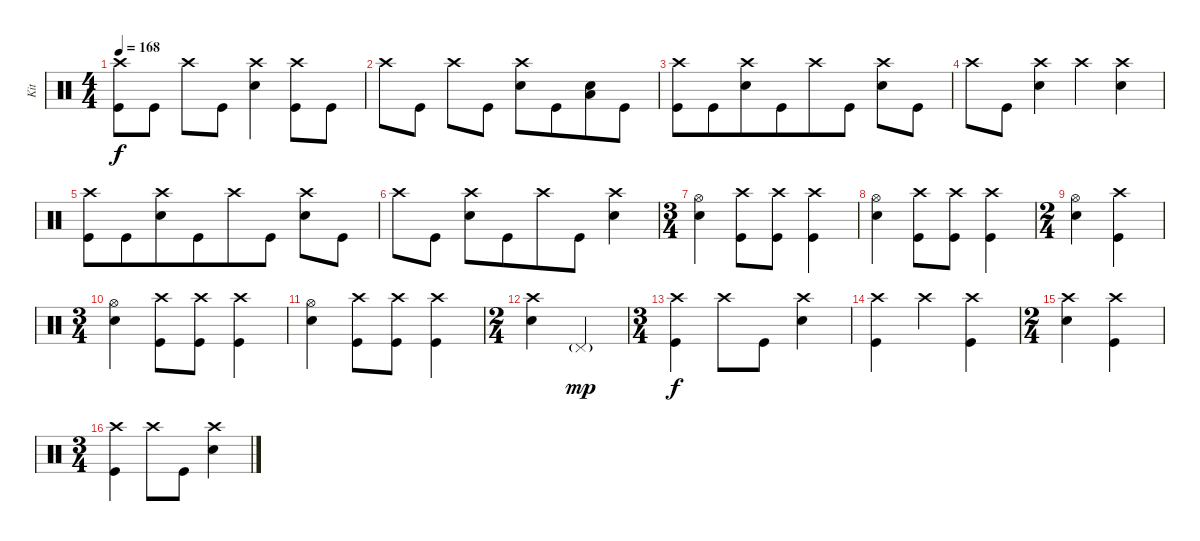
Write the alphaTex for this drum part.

\track ("Kit" "Kit") {instrument percussion}
\staff {score}
\articulation defaults
\ts (4 4)
\tempo 168
\clef neutral
\ks c
("Crash high (hit)" "Kick (hit)").8{dy f} "Kick (hit)".8 "Crash high (hit)".8 "Kick (hit)".8{beam merge} ("Crash high (hit)" "Electric Snare (hit)").4{beam merge} ("Crash high (hit)" "Kick (hit)").8{beam merge} "Kick (hit)".8 |
"Crash high (hit)".8{beam merge} "Kick (hit)".8 "Crash high (hit)".8{beam merge} "Kick (hit)".8 ("Crash high (hit)" "Electric Snare (hit)").8 "Kick (hit)".8{beam merge} ("Electric Snare (hit)" "Low Floor Tom (hit)").8 "Kick (hit)".8 |
("Crash high (hit)" "Kick (hit)").8 "Kick (hit)".8{beam merge} ("Crash high (hit)" "Electric Snare (hit)").8 "Kick (hit)".8{beam merge} "Crash high (hit)".8 "Kick (hit)".8 ("Crash high (hit)" "Electric Snare (hit)").8 "Kick (hit)".8 |
"Crash high (hit)".8{beam merge} "Kick (hit)".8 ("Crash high (hit)" "Electric Snare (hit)").4{beam merge} "Crash high (hit)".4 ("Crash high (hit)" "Electric Snare (hit)").4 |
("Crash high (hit)" "Kick (hit)").8 "Kick (hit)".8{beam merge} ("Crash high (hit)" "Electric Snare (hit)").8 "Kick (hit)".8{beam merge} "Crash high (hit)".8 "Kick (hit)".8 ("Crash high (hit)" "Electric Snare (hit)").8 "Kick (hit)".8 |
"Crash high (hit)".8{beam merge} "Kick (hit)".8 ("Crash high (hit)" "Electric Snare (hit)").8 "Kick (hit)".8{beam merge} "Crash high (hit)".8{beam merge} "Kick (hit)".8 ("Crash high (hit)" "Electric Snare (hit)").4 |
\ts (3 4)
("Hi-Hat (open)" "Electric Snare (hit)").4{beam merge} ("Crash high (hit)" "Kick (hit)").8{beam merge} ("Crash high (hit)" "Kick (hit)").8{beam merge} ("Crash high (hit)" "Kick (hit)").4 |
("Hi-Hat (open)" "Electric Snare (hit)").4{beam merge} ("Crash high (hit)" "Kick (hit)").8{beam merge} ("Crash high (hit)" "Kick (hit)").8{beam merge} ("Crash high (hit)" "Kick (hit)").4 |
\ts (2 4)
("Hi-Hat (open)" "Electric Snare (hit)").4 ("Crash high (hit)" "Kick (hit)").4 |
\ts (3 4)
("Hi-Hat (open)" "Electric Snare (hit)").4{beam merge} ("Crash high (hit)" "Kick (hit)").8{beam merge} ("Crash high (hit)" "Kick (hit)").8{beam merge} ("Crash high (hit)" "Kick (hit)").4 |
("Hi-Hat (open)" "Electric Snare (hit)").4{beam merge} ("Crash high (hit)" "Kick (hit)").8{beam merge} ("Crash high (hit)" "Kick (hit)").8{beam merge} ("Crash high (hit)" "Kick (hit)").4 |
\ts (2 4)
("Crash high (hit)" "Electric Snare (hit)").4 "Pedal Hi-Hat (hit)"{g}.4{dy mp} |
\ts (3 4)
("Crash high (hit)" "Kick (hit)").4{dy f beam merge} "Crash high (hit)".8 "Kick (hit)".8 ("Crash high (hit)" "Electric Snare (hit)").4 |
("Crash high (hit)" "Kick (hit)").4 "Crash high (hit)".4 ("Crash high (hit)" "Kick (hit)").4 |
\ts (2 4)
("Crash high (hit)" "Electric Snare (hit)").4{beam merge} ("Crash high (hit)" "Kick (hit)").4 |
\ts (3 4)
("Crash high (hit)" "Kick (hit)").4{beam merge} "Crash high (hit)".8 "Kick (hit)".8 ("Crash high (hit)" "Electric Snare (hit)").4
